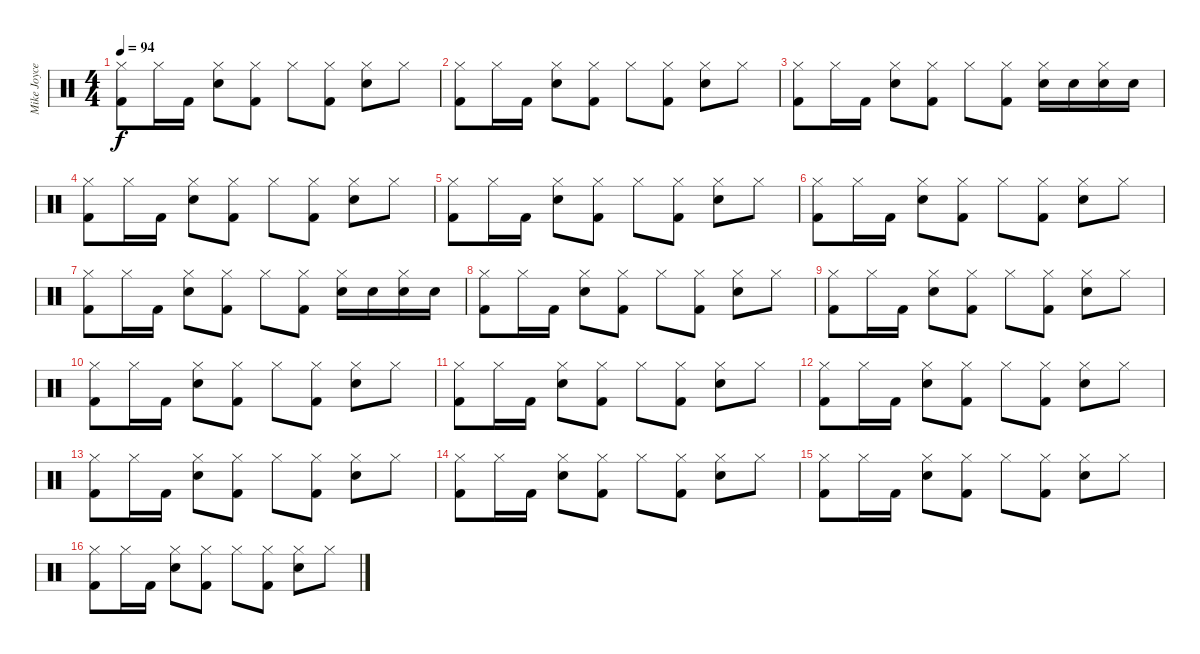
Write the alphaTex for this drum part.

\track ("Mike Joyce" "Mike Joyce") {instrument percussion}
\staff {score}
\articulation defaults
\ts (4 4)
\tempo 94
\clef neutral
\ks c
("Hi-Hat (closed)" "Kick (hit) 2").8{dy f} "Hi-Hat (closed)".16 "Kick (hit) 2".16 ("Hi-Hat (closed)" "Snare (hit) 2").8 ("Hi-Hat (closed)" "Kick (hit) 2").8 "Hi-Hat (closed)".8 ("Hi-Hat (closed)" "Kick (hit) 2").8 ("Hi-Hat (closed)" "Snare (hit) 2").8 "Hi-Hat (closed)".8 |
("Hi-Hat (closed)" "Kick (hit) 2").8 "Hi-Hat (closed)".16 "Kick (hit) 2".16 ("Hi-Hat (closed)" "Snare (hit) 2").8 ("Hi-Hat (closed)" "Kick (hit) 2").8 "Hi-Hat (closed)".8 ("Hi-Hat (closed)" "Kick (hit) 2").8 ("Hi-Hat (closed)" "Snare (hit) 2").8 "Hi-Hat (closed)".8 |
("Hi-Hat (closed)" "Kick (hit) 2").8 "Hi-Hat (closed)".16 "Kick (hit) 2".16 ("Hi-Hat (closed)" "Snare (hit) 2").8 ("Hi-Hat (closed)" "Kick (hit) 2").8 "Hi-Hat (closed)".8 ("Hi-Hat (closed)" "Kick (hit) 2").8 ("Hi-Hat (closed)" "Snare (hit) 2").16 "Snare (hit) 2".16 ("Hi-Hat (closed)" "Snare (hit) 2").16 "Snare (hit) 2".16 |
("Hi-Hat (closed)" "Kick (hit) 2").8 "Hi-Hat (closed)".16 "Kick (hit) 2".16 ("Hi-Hat (closed)" "Snare (hit) 2").8 ("Hi-Hat (closed)" "Kick (hit) 2").8 "Hi-Hat (closed)".8 ("Hi-Hat (closed)" "Kick (hit) 2").8 ("Hi-Hat (closed)" "Snare (hit) 2").8 "Hi-Hat (closed)".8 |
("Hi-Hat (closed)" "Kick (hit) 2").8 "Hi-Hat (closed)".16 "Kick (hit) 2".16 ("Hi-Hat (closed)" "Snare (hit) 2").8 ("Hi-Hat (closed)" "Kick (hit) 2").8 "Hi-Hat (closed)".8 ("Hi-Hat (closed)" "Kick (hit) 2").8 ("Hi-Hat (closed)" "Snare (hit) 2").8 "Hi-Hat (closed)".8 |
("Hi-Hat (closed)" "Kick (hit) 2").8 "Hi-Hat (closed)".16 "Kick (hit) 2".16 ("Hi-Hat (closed)" "Snare (hit) 2").8 ("Hi-Hat (closed)" "Kick (hit) 2").8 "Hi-Hat (closed)".8 ("Hi-Hat (closed)" "Kick (hit) 2").8 ("Hi-Hat (closed)" "Snare (hit) 2").8 "Hi-Hat (closed)".8 |
("Hi-Hat (closed)" "Kick (hit) 2").8 "Hi-Hat (closed)".16 "Kick (hit) 2".16 ("Hi-Hat (closed)" "Snare (hit) 2").8 ("Hi-Hat (closed)" "Kick (hit) 2").8 "Hi-Hat (closed)".8 ("Hi-Hat (closed)" "Kick (hit) 2").8 ("Hi-Hat (closed)" "Snare (hit) 2").16 "Snare (hit) 2".16 ("Hi-Hat (closed)" "Snare (hit) 2").16 "Snare (hit) 2".16 |
("Hi-Hat (closed)" "Kick (hit) 2").8 "Hi-Hat (closed)".16 "Kick (hit) 2".16 ("Hi-Hat (closed)" "Snare (hit) 2").8 ("Hi-Hat (closed)" "Kick (hit) 2").8 "Hi-Hat (closed)".8 ("Hi-Hat (closed)" "Kick (hit) 2").8 ("Hi-Hat (closed)" "Snare (hit) 2").8 "Hi-Hat (closed)".8 |
("Hi-Hat (closed)" "Kick (hit) 2").8 "Hi-Hat (closed)".16 "Kick (hit) 2".16 ("Hi-Hat (closed)" "Snare (hit) 2").8 ("Hi-Hat (closed)" "Kick (hit) 2").8 "Hi-Hat (closed)".8 ("Hi-Hat (closed)" "Kick (hit) 2").8 ("Hi-Hat (closed)" "Snare (hit) 2").8 "Hi-Hat (closed)".8 |
("Hi-Hat (closed)" "Kick (hit) 2").8 "Hi-Hat (closed)".16 "Kick (hit) 2".16 ("Hi-Hat (closed)" "Snare (hit) 2").8 ("Hi-Hat (closed)" "Kick (hit) 2").8 "Hi-Hat (closed)".8 ("Hi-Hat (closed)" "Kick (hit) 2").8 ("Hi-Hat (closed)" "Snare (hit) 2").8 "Hi-Hat (closed)".8 |
("Hi-Hat (closed)" "Kick (hit) 2").8 "Hi-Hat (closed)".16 "Kick (hit) 2".16 ("Hi-Hat (closed)" "Snare (hit) 2").8 ("Hi-Hat (closed)" "Kick (hit) 2").8 "Hi-Hat (closed)".8 ("Hi-Hat (closed)" "Kick (hit) 2").8 ("Hi-Hat (closed)" "Snare (hit) 2").8 "Hi-Hat (closed)".8 |
("Hi-Hat (closed)" "Kick (hit) 2").8 "Hi-Hat (closed)".16 "Kick (hit) 2".16 ("Hi-Hat (closed)" "Snare (hit) 2").8 ("Hi-Hat (closed)" "Kick (hit) 2").8 "Hi-Hat (closed)".8 ("Hi-Hat (closed)" "Kick (hit) 2").8 ("Hi-Hat (closed)" "Snare (hit) 2").8 "Hi-Hat (closed)".8 |
("Hi-Hat (closed)" "Kick (hit) 2").8 "Hi-Hat (closed)".16 "Kick (hit) 2".16 ("Hi-Hat (closed)" "Snare (hit) 2").8 ("Hi-Hat (closed)" "Kick (hit) 2").8 "Hi-Hat (closed)".8 ("Hi-Hat (closed)" "Kick (hit) 2").8 ("Hi-Hat (closed)" "Snare (hit) 2").8 "Hi-Hat (closed)".8 |
("Hi-Hat (closed)" "Kick (hit) 2").8 "Hi-Hat (closed)".16 "Kick (hit) 2".16 ("Hi-Hat (closed)" "Snare (hit) 2").8 ("Hi-Hat (closed)" "Kick (hit) 2").8 "Hi-Hat (closed)".8 ("Hi-Hat (closed)" "Kick (hit) 2").8 ("Hi-Hat (closed)" "Snare (hit) 2").8 "Hi-Hat (closed)".8 |
("Hi-Hat (closed)" "Kick (hit) 2").8 "Hi-Hat (closed)".16 "Kick (hit) 2".16 ("Hi-Hat (closed)" "Snare (hit) 2").8 ("Hi-Hat (closed)" "Kick (hit) 2").8 "Hi-Hat (closed)".8 ("Hi-Hat (closed)" "Kick (hit) 2").8 ("Hi-Hat (closed)" "Snare (hit) 2").8 "Hi-Hat (closed)".8 |
("Hi-Hat (closed)" "Kick (hit) 2").8 "Hi-Hat (closed)".16 "Kick (hit) 2".16 ("Hi-Hat (closed)" "Snare (hit) 2").8 ("Hi-Hat (closed)" "Kick (hit) 2").8 "Hi-Hat (closed)".8 ("Hi-Hat (closed)" "Kick (hit) 2").8 ("Hi-Hat (closed)" "Snare (hit) 2").8 "Hi-Hat (closed)".8
